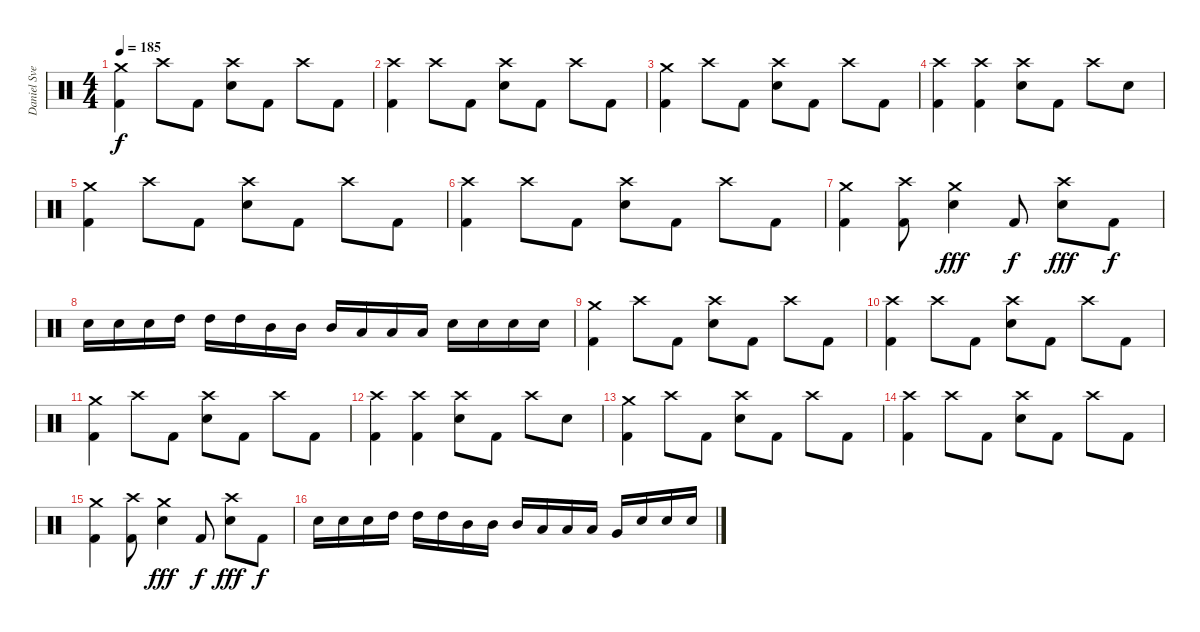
\track ("Daniel Svensson" "Daniel Sve") {instrument percussion}
\staff {score}
\articulation defaults
\ts (4 4)
\tempo 185
\clef neutral
\ks c
("Kick (hit) 2" "Crash medium (hit)").4{dy f} "Crash high (hit)".8 "Kick (hit) 2".8 ("Electric Snare (hit)" "Crash high (hit)").8 "Kick (hit) 2".8 "Crash high (hit)".8 "Kick (hit) 2".8 |
("Kick (hit) 2" "Crash high (hit)").4 "Crash high (hit)".8 "Kick (hit) 2".8 ("Electric Snare (hit)" "Crash high (hit)").8 "Kick (hit) 2".8 "Crash high (hit)".8 "Kick (hit) 2".8 |
("Kick (hit) 2" "Crash medium (hit)").4 "Crash high (hit)".8 "Kick (hit) 2".8 ("Electric Snare (hit)" "Crash high (hit)").8 "Kick (hit) 2".8 "Crash high (hit)".8 "Kick (hit) 2".8 |
("Kick (hit) 2" "Crash high (hit)").4 ("Kick (hit) 2" "Crash high (hit)").4 ("Electric Snare (hit)" "Crash high (hit)").8 "Kick (hit) 2".8 "Crash high (hit)".8 "Electric Snare (hit)".8 |
("Kick (hit) 2" "Crash medium (hit)").4 "Crash high (hit)".8 "Kick (hit) 2".8 ("Electric Snare (hit)" "Crash high (hit)").8 "Kick (hit) 2".8 "Crash high (hit)".8 "Kick (hit) 2".8 |
("Kick (hit) 2" "Crash high (hit)").4 "Crash high (hit)".8 "Kick (hit) 2".8 ("Electric Snare (hit)" "Crash high (hit)").8 "Kick (hit) 2".8 "Crash high (hit)".8 "Kick (hit) 2".8 |
("Kick (hit) 2" "Crash medium (hit)").4 ("Kick (hit) 2" "Crash high (hit)").8 ("Electric Snare (hit)" "Crash medium (hit)").4{dy fff} "Kick (hit) 2".8{dy f} ("Electric Snare (hit)" "Crash high (hit)").8{dy fff} "Kick (hit) 2".8{dy f} |
"Electric Snare (hit)".16 "Electric Snare (hit)".16 "Electric Snare (hit)".16 "High Tom (hit)".16 "High Tom (hit)".16 "High Tom (hit)".16 "Mid Tom (hit)".16 "Mid Tom (hit)".16 "Mid Tom (hit)".16 "Low Tom (hit)".16 "Low Tom (hit)".16 "Low Tom (hit)".16 "Electric Snare (hit)".16 "Electric Snare (hit)".16 "Electric Snare (hit)".16 "Electric Snare (hit)".16 |
("Kick (hit) 2" "Crash medium (hit)").4 "Crash high (hit)".8 "Kick (hit) 2".8 ("Electric Snare (hit)" "Crash high (hit)").8 "Kick (hit) 2".8 "Crash high (hit)".8 "Kick (hit) 2".8 |
("Kick (hit) 2" "Crash high (hit)").4 "Crash high (hit)".8 "Kick (hit) 2".8 ("Electric Snare (hit)" "Crash high (hit)").8 "Kick (hit) 2".8 "Crash high (hit)".8 "Kick (hit) 2".8 |
("Kick (hit) 2" "Crash medium (hit)").4 "Crash high (hit)".8 "Kick (hit) 2".8 ("Electric Snare (hit)" "Crash high (hit)").8 "Kick (hit) 2".8 "Crash high (hit)".8 "Kick (hit) 2".8 |
("Kick (hit) 2" "Crash high (hit)").4 ("Kick (hit) 2" "Crash high (hit)").4 ("Electric Snare (hit)" "Crash high (hit)").8 "Kick (hit) 2".8 "Crash high (hit)".8 "Electric Snare (hit)".8 |
("Kick (hit) 2" "Crash medium (hit)").4 "Crash high (hit)".8 "Kick (hit) 2".8 ("Electric Snare (hit)" "Crash high (hit)").8 "Kick (hit) 2".8 "Crash high (hit)".8 "Kick (hit) 2".8 |
("Kick (hit) 2" "Crash high (hit)").4 "Crash high (hit)".8 "Kick (hit) 2".8 ("Electric Snare (hit)" "Crash high (hit)").8 "Kick (hit) 2".8 "Crash high (hit)".8 "Kick (hit) 2".8 |
("Kick (hit) 2" "Crash medium (hit)").4 ("Kick (hit) 2" "Crash high (hit)").8 ("Electric Snare (hit)" "Crash medium (hit)").4{dy fff} "Kick (hit) 2".8{dy f} ("Electric Snare (hit)" "Crash high (hit)").8{dy fff} "Kick (hit) 2".8{dy f} |
"Electric Snare (hit)".16 "Electric Snare (hit)".16 "Electric Snare (hit)".16 "High Tom (hit)".16 "High Tom (hit)".16 "High Tom (hit)".16 "Mid Tom (hit)".16 "Mid Tom (hit)".16 "Mid Tom (hit)".16 "Low Tom (hit)".16 "Low Tom (hit)".16 "Low Tom (hit)".16 "Very Low Tom (hit)".16 "Electric Snare (hit)".16 "Electric Snare (hit)".16 "Electric Snare (hit)".16
